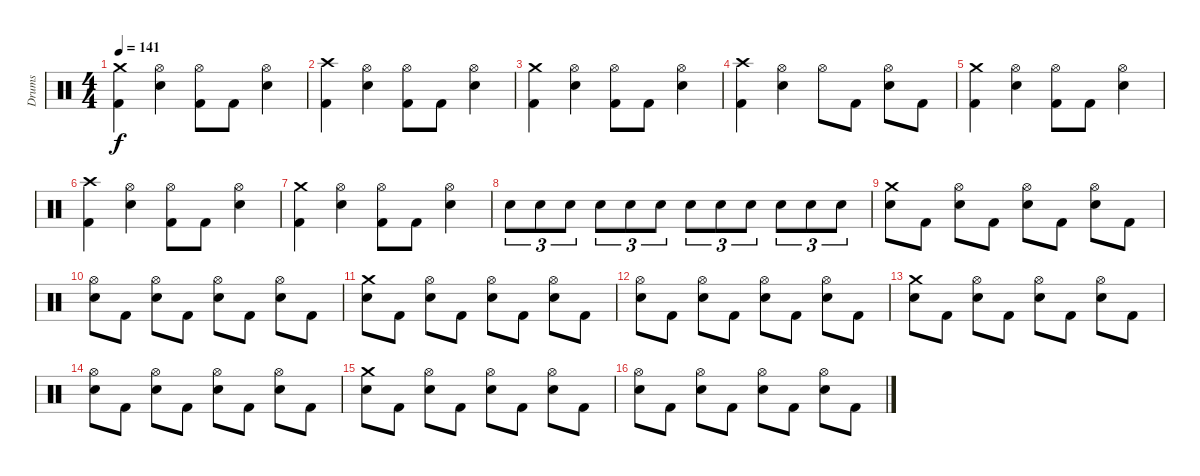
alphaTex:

\track ("Drums" "Drums") {instrument percussion}
\staff {score}
\articulation defaults
\ts (4 4)
\tempo 141
\clef neutral
\ks c
("Crash medium (hit)" "Kick (hit) 2").4{dy f} ("Hi-Hat (open)" "Electric Snare (hit)").4 ("Hi-Hat (open)" "Kick (hit) 2").8 "Kick (hit) 2".8 ("Hi-Hat (open)" "Electric Snare (hit)").4 |
("Crash high (hit)" "Kick (hit) 2").4 ("Hi-Hat (open)" "Electric Snare (hit)").4 ("Hi-Hat (open)" "Kick (hit) 2").8 "Kick (hit) 2".8 ("Hi-Hat (open)" "Electric Snare (hit)").4 |
("Crash medium (hit)" "Kick (hit) 2").4 ("Hi-Hat (open)" "Electric Snare (hit)").4 ("Hi-Hat (open)" "Kick (hit) 2").8 "Kick (hit) 2".8 ("Hi-Hat (open)" "Electric Snare (hit)").4 |
("Crash high (hit)" "Kick (hit) 2").4 ("Hi-Hat (open)" "Electric Snare (hit)").4 "Hi-Hat (open)".8 "Kick (hit) 2".8 ("Hi-Hat (open)" "Electric Snare (hit)").8 "Kick (hit) 2".8 |
("Crash medium (hit)" "Kick (hit) 2").4 ("Hi-Hat (open)" "Electric Snare (hit)").4 ("Hi-Hat (open)" "Kick (hit) 2").8 "Kick (hit) 2".8 ("Hi-Hat (open)" "Electric Snare (hit)").4 |
("Crash high (hit)" "Kick (hit) 2").4 ("Hi-Hat (open)" "Electric Snare (hit)").4 ("Hi-Hat (open)" "Kick (hit) 2").8 "Kick (hit) 2".8 ("Hi-Hat (open)" "Electric Snare (hit)").4 |
("Crash medium (hit)" "Kick (hit) 2").4 ("Hi-Hat (open)" "Electric Snare (hit)").4 ("Hi-Hat (open)" "Kick (hit) 2").8 "Kick (hit) 2".8 ("Hi-Hat (open)" "Electric Snare (hit)").4 |
"Electric Snare (hit)".8{tu (3 2) volume 9} "Electric Snare (hit)".8{tu (3 2) volume 10} "Electric Snare (hit)".8{tu (3 2) volume 10} "Electric Snare (hit)".8{tu (3 2) volume 11} "Electric Snare (hit)".8{tu (3 2) volume 12} "Electric Snare (hit)".8{tu (3 2) volume 13} "Electric Snare (hit)".8{tu (3 2) volume 14} "Electric Snare (hit)".8{tu (3 2) volume 15} "Electric Snare (hit)".8{tu (3 2) volume 16} "Electric Snare (hit)".8{tu (3 2)} "Electric Snare (hit)".8{tu (3 2)} "Electric Snare (hit)".8{tu (3 2)} |
("Crash medium (hit)" "Electric Snare (hit)").8 "Kick (hit) 2".8 ("Hi-Hat (open)" "Electric Snare (hit)").8 "Kick (hit) 2".8 ("Hi-Hat (open)" "Electric Snare (hit)").8 "Kick (hit) 2".8 ("Hi-Hat (open)" "Electric Snare (hit)").8 "Kick (hit) 2".8 |
("Hi-Hat (open)" "Electric Snare (hit)").8 "Kick (hit) 2".8 ("Hi-Hat (open)" "Electric Snare (hit)").8 "Kick (hit) 2".8 ("Hi-Hat (open)" "Electric Snare (hit)").8 "Kick (hit) 2".8 ("Hi-Hat (open)" "Electric Snare (hit)").8 "Kick (hit) 2".8 |
("Crash medium (hit)" "Electric Snare (hit)").8 "Kick (hit) 2".8 ("Hi-Hat (open)" "Electric Snare (hit)").8 "Kick (hit) 2".8 ("Hi-Hat (open)" "Electric Snare (hit)").8 "Kick (hit) 2".8 ("Hi-Hat (open)" "Electric Snare (hit)").8 "Kick (hit) 2".8 |
("Hi-Hat (open)" "Electric Snare (hit)").8 "Kick (hit) 2".8 ("Hi-Hat (open)" "Electric Snare (hit)").8 "Kick (hit) 2".8 ("Hi-Hat (open)" "Electric Snare (hit)").8 "Kick (hit) 2".8 ("Hi-Hat (open)" "Electric Snare (hit)").8 "Kick (hit) 2".8 |
("Crash medium (hit)" "Electric Snare (hit)").8 "Kick (hit) 2".8 ("Hi-Hat (open)" "Electric Snare (hit)").8 "Kick (hit) 2".8 ("Hi-Hat (open)" "Electric Snare (hit)").8 "Kick (hit) 2".8 ("Hi-Hat (open)" "Electric Snare (hit)").8 "Kick (hit) 2".8 |
("Hi-Hat (open)" "Electric Snare (hit)").8 "Kick (hit) 2".8 ("Hi-Hat (open)" "Electric Snare (hit)").8 "Kick (hit) 2".8 ("Hi-Hat (open)" "Electric Snare (hit)").8 "Kick (hit) 2".8 ("Hi-Hat (open)" "Electric Snare (hit)").8 "Kick (hit) 2".8 |
("Crash medium (hit)" "Electric Snare (hit)").8 "Kick (hit) 2".8 ("Hi-Hat (open)" "Electric Snare (hit)").8 "Kick (hit) 2".8 ("Hi-Hat (open)" "Electric Snare (hit)").8 "Kick (hit) 2".8 ("Hi-Hat (open)" "Electric Snare (hit)").8 "Kick (hit) 2".8 |
("Hi-Hat (open)" "Electric Snare (hit)").8 "Kick (hit) 2".8 ("Hi-Hat (open)" "Electric Snare (hit)").8 "Kick (hit) 2".8 ("Hi-Hat (open)" "Electric Snare (hit)").8 "Kick (hit) 2".8 ("Hi-Hat (open)" "Electric Snare (hit)").8 "Kick (hit) 2".8
